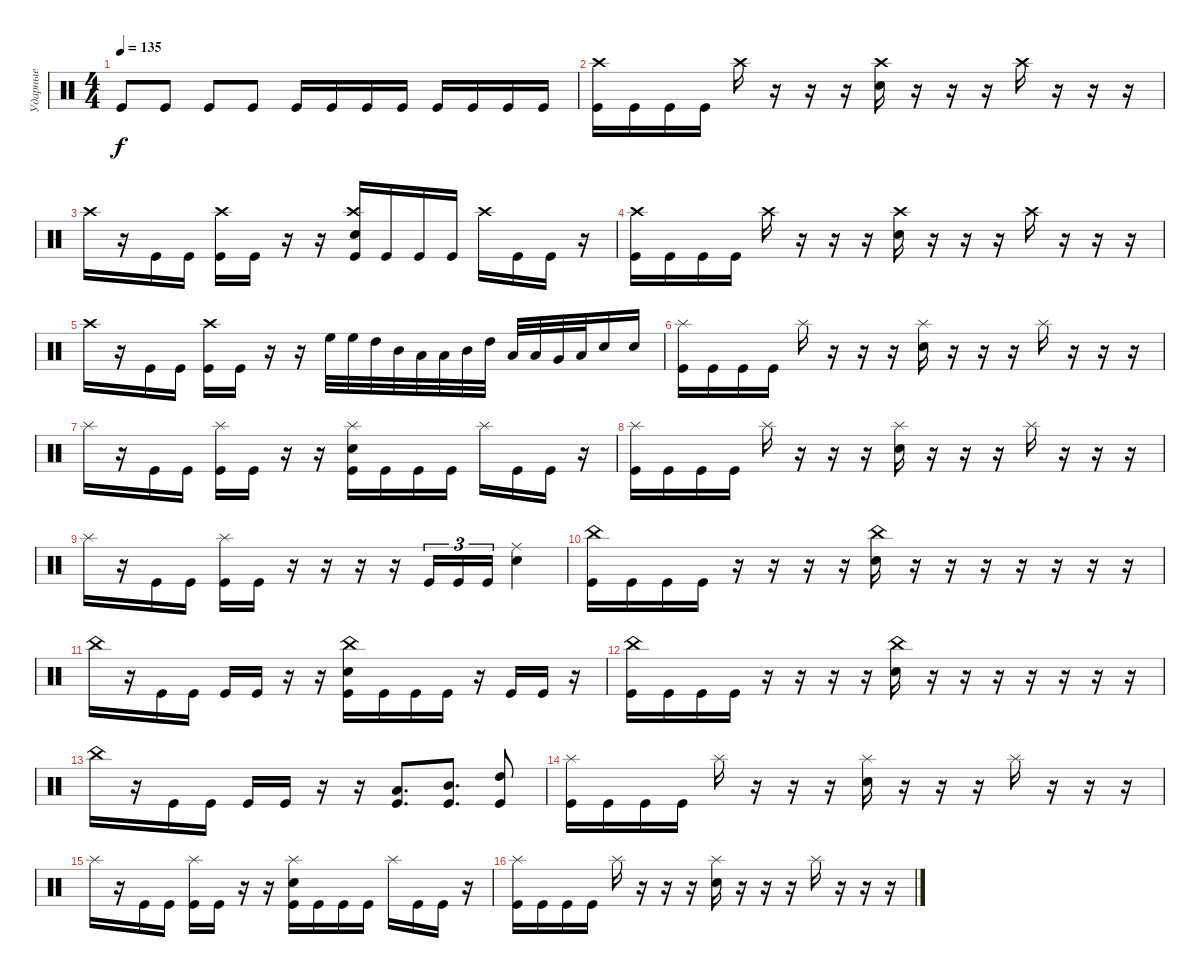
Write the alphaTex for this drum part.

\track ("Ударные" "Ударные") {instrument percussion}
\staff {score}
\articulation defaults
\ts (4 4)
\tempo 135
\clef neutral
\ks c "Kick (hit)".8{dy f} "Kick (hit)".8 "Kick (hit)".8 "Kick (hit)".8 "Kick (hit)".16 "Kick (hit)".16 "Kick (hit)".16 "Kick (hit)".16 "Kick (hit)".16 "Kick (hit)".16 "Kick (hit)".16 "Kick (hit)".16
|
("Crash high (hit)" "Kick (hit)").16 "Kick (hit)".16 "Kick (hit)".16 "Kick (hit)".16 "Crash high (hit)".16 r.16 r.16 r.16 ("Crash high (hit)" "Snare (hit) 2").16 r.16 r.16 r.16 "Crash high (hit)".16 r.16 r.16 r.16 |
"Crash high (hit)".16 r.16 "Kick (hit)".16 "Kick (hit)".16 ("Kick (hit)" "Crash high (hit)").16 "Kick (hit)".16 r.16 r.16 ("Kick (hit)" "Crash high (hit)" "Snare (hit) 2").16 "Kick (hit)".16 "Kick (hit)".16 "Kick (hit)".16 "Crash high (hit)".16 "Kick (hit)".16 "Kick (hit)".16 r.16 |
("Crash high (hit)" "Kick (hit)").16 "Kick (hit)".16 "Kick (hit)".16 "Kick (hit)".16 "Crash high (hit)".16 r.16 r.16 r.16 ("Crash high (hit)" "Snare (hit) 2").16 r.16 r.16 r.16 "Crash high (hit)".16 r.16 r.16 r.16 |
"Crash high (hit)".16 r.16 "Kick (hit)".16 "Kick (hit)".16 ("Kick (hit)" "Crash high (hit)").16 "Kick (hit)".16 r.16 r.16 "High Floor Tom (hit)".32 "High Floor Tom (hit)".32 "High Tom (hit)".32 "Mid Tom (hit)".32 "Low Tom (hit)".32 "Low Tom (hit)".32 "Mid Tom (hit)".32 "High Tom (hit)".32 "Low Tom (hit)".32 "Low Tom (hit)".32 "Very Low Tom (hit)".32 "Low Tom (hit)".32 "Snare (hit) 2".16 "Snare (hit) 2".16 |
("Splash (hit)" "Kick (hit)").16 "Kick (hit)".16 "Kick (hit)".16 "Kick (hit)".16 "Splash (hit)".16 r.16 r.16 r.16 ("Splash (hit)" "Snare (hit) 2").16 r.16 r.16 r.16 "Splash (hit)".16 r.16 r.16 r.16 |
"Splash (hit)".16 r.16 "Kick (hit)".16 "Kick (hit)".16 ("Kick (hit)" "Splash (hit)").16 "Kick (hit)".16 r.16 r.16 ("Kick (hit)" "Splash (hit)" "Snare (hit) 2").16 "Kick (hit)".16 "Kick (hit)".16 "Kick (hit)".16 "Splash (hit)".16 "Kick (hit)".16 "Kick (hit)".16 r.16 |
("Splash (hit)" "Kick (hit)").16 "Kick (hit)".16 "Kick (hit)".16 "Kick (hit)".16 "Splash (hit)".16 r.16 r.16 r.16 ("Splash (hit)" "Snare (hit) 2").16 r.16 r.16 r.16 "Splash (hit)".16 r.16 r.16 r.16 |
"Splash (hit)".16 r.16 "Kick (hit)".16 "Kick (hit)".16 ("Kick (hit)" "Splash (hit)").16 "Kick (hit)".16 r.16 r.16 r.16 r.16 "Kick (hit)".16{tu (3 2)} "Kick (hit)".16{tu (3 2)} "Kick (hit)".16{tu (3 2)} ("Snare (hit) 2" "Ride (middle)").4 |
("China (hit)" "Kick (hit)").16 "Kick (hit)".16 "Kick (hit)".16 "Kick (hit)".16 r.16 r.16 r.16 r.16 ("China (hit)" "Snare (hit) 2").16 r.16 r.16 r.16 r.16 r.16 r.16 r.16 |
"China (hit)".16 r.16 "Kick (hit)".16 "Kick (hit)".16 "Kick (hit)".16 "Kick (hit)".16 r.16 r.16 ("Kick (hit)" "China (hit)" "Snare (hit) 2").16 "Kick (hit)".16 "Kick (hit)".16 "Kick (hit)".16 r.16 "Kick (hit)".16 "Kick (hit)".16 r.16 |
("China (hit)" "Kick (hit)").16 "Kick (hit)".16 "Kick (hit)".16 "Kick (hit)".16 r.16 r.16 r.16 r.16 ("China (hit)" "Snare (hit) 2").16 r.16 r.16 r.16 r.16 r.16 r.16 r.16 |
"China (hit)".16 r.16 "Kick (hit)".16 "Kick (hit)".16 "Kick (hit)".16 "Kick (hit)".16 r.16 r.16 ("Kick (hit)" "Low Tom (hit)").8{d} ("Kick (hit)" "Mid Tom (hit)").8{d} ("Kick (hit)" "High Tom (hit)").8 |
("Splash (hit)" "Kick (hit)").16 "Kick (hit)".16 "Kick (hit)".16 "Kick (hit)".16 "Splash (hit)".16 r.16 r.16 r.16 ("Splash (hit)" "Snare (hit) 2").16 r.16 r.16 r.16 "Splash (hit)".16 r.16 r.16 r.16 |
"Splash (hit)".16 r.16 "Kick (hit)".16 "Kick (hit)".16 ("Kick (hit)" "Splash (hit)").16 "Kick (hit)".16 r.16 r.16 ("Kick (hit)" "Splash (hit)" "Snare (hit) 2").16 "Kick (hit)".16 "Kick (hit)".16 "Kick (hit)".16 "Splash (hit)".16 "Kick (hit)".16 "Kick (hit)".16 r.16 |
("Splash (hit)" "Kick (hit)").16 "Kick (hit)".16 "Kick (hit)".16 "Kick (hit)".16 "Splash (hit)".16 r.16 r.16 r.16 ("Splash (hit)" "Snare (hit) 2").16 r.16 r.16 r.16 "Splash (hit)".16 r.16 r.16 r.16
